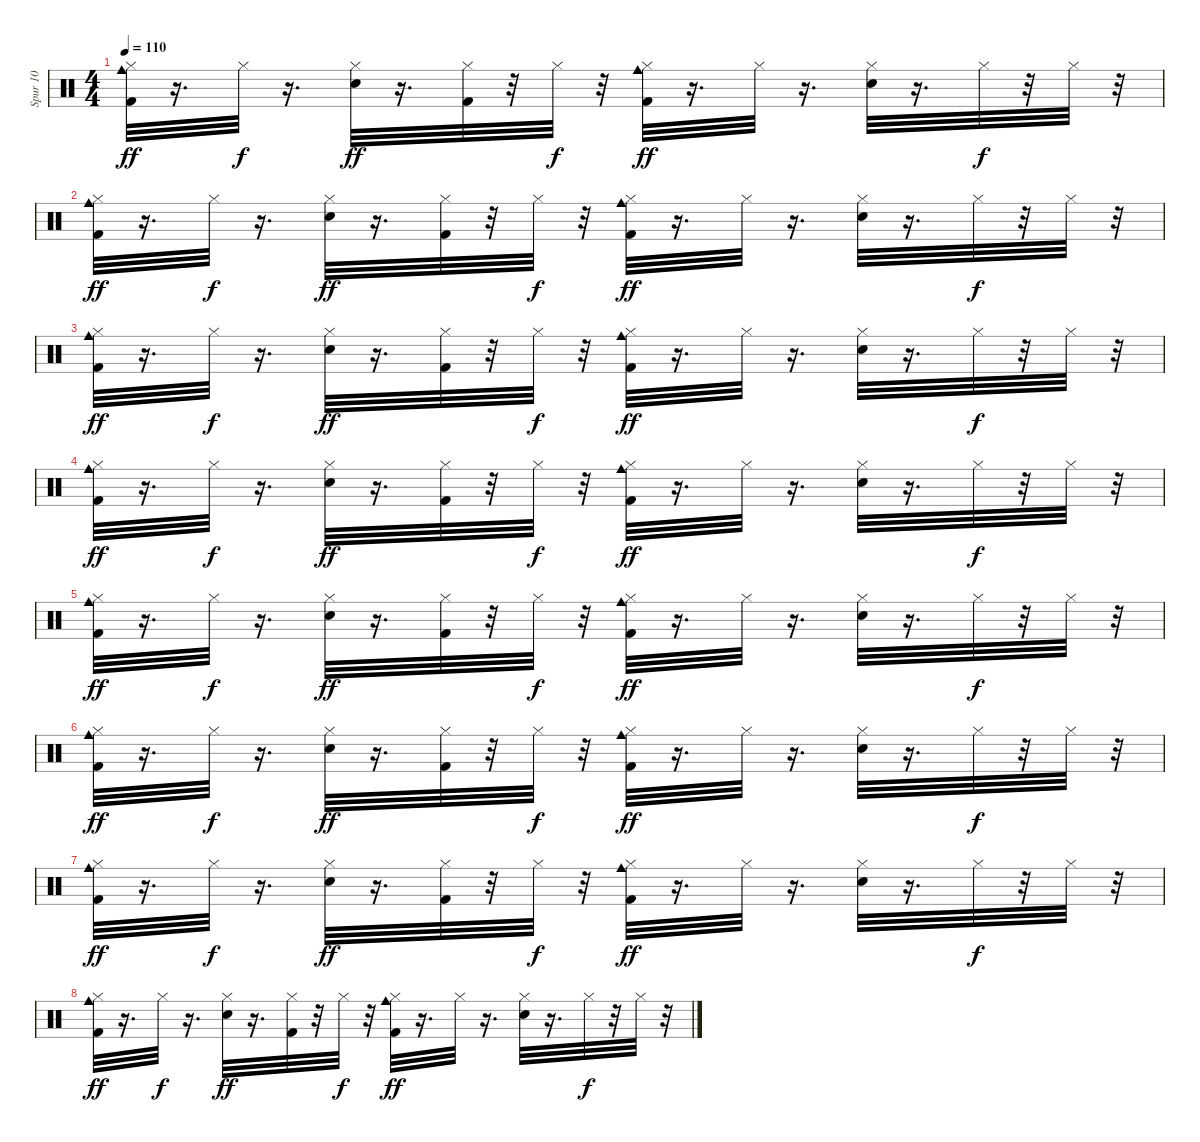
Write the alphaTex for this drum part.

\track ("Spur 10" "Spur 10") {instrument percussion}
\staff {score}
\articulation defaults
\ts (4 4)
\tempo 110
\clef neutral
\ks c
("Kick (hit) 2" "Cowbell medium (hit)" "Hi-Hat (closed)").32{dy ff} r.16{d} "Hi-Hat (closed)".32{dy f} r.16{d} ("Snare (hit) 2" "Hi-Hat (closed)").32{dy ff} r.16{d} ("Kick (hit) 2" "Hi-Hat (closed)").32 r.32 "Hi-Hat (closed)".32{dy f} r.32 ("Kick (hit) 2" "Cowbell medium (hit)" "Hi-Hat (closed)").32{dy ff} r.16{d} "Hi-Hat (closed)".32 r.16{d} ("Snare (hit) 2" "Hi-Hat (closed)").32 r.16{d} "Hi-Hat (closed)".32{dy f} r.32 "Hi-Hat (closed)".32 r.32 |
("Kick (hit) 2" "Cowbell medium (hit)" "Hi-Hat (closed)").32{dy ff} r.16{d} "Hi-Hat (closed)".32{dy f} r.16{d} ("Snare (hit) 2" "Hi-Hat (closed)").32{dy ff} r.16{d} ("Kick (hit) 2" "Hi-Hat (closed)").32 r.32 "Hi-Hat (closed)".32{dy f} r.32 ("Kick (hit) 2" "Cowbell medium (hit)" "Hi-Hat (closed)").32{dy ff} r.16{d} "Hi-Hat (closed)".32 r.16{d} ("Snare (hit) 2" "Hi-Hat (closed)").32 r.16{d} "Hi-Hat (closed)".32{dy f} r.32 "Hi-Hat (closed)".32 r.32 |
("Kick (hit) 2" "Cowbell medium (hit)" "Hi-Hat (closed)").32{dy ff} r.16{d} "Hi-Hat (closed)".32{dy f} r.16{d} ("Snare (hit) 2" "Hi-Hat (closed)").32{dy ff} r.16{d} ("Kick (hit) 2" "Hi-Hat (closed)").32 r.32 "Hi-Hat (closed)".32{dy f} r.32 ("Kick (hit) 2" "Cowbell medium (hit)" "Hi-Hat (closed)").32{dy ff} r.16{d} "Hi-Hat (closed)".32 r.16{d} ("Snare (hit) 2" "Hi-Hat (closed)").32 r.16{d} "Hi-Hat (closed)".32{dy f} r.32 "Hi-Hat (closed)".32 r.32 |
("Kick (hit) 2" "Cowbell medium (hit)" "Hi-Hat (closed)").32{dy ff} r.16{d} "Hi-Hat (closed)".32{dy f} r.16{d} ("Snare (hit) 2" "Hi-Hat (closed)").32{dy ff} r.16{d} ("Kick (hit) 2" "Hi-Hat (closed)").32 r.32 "Hi-Hat (closed)".32{dy f} r.32 ("Kick (hit) 2" "Cowbell medium (hit)" "Hi-Hat (closed)").32{dy ff} r.16{d} "Hi-Hat (closed)".32 r.16{d} ("Snare (hit) 2" "Hi-Hat (closed)").32 r.16{d} "Hi-Hat (closed)".32{dy f} r.32 "Hi-Hat (closed)".32 r.32 |
("Kick (hit) 2" "Cowbell medium (hit)" "Hi-Hat (closed)").32{dy ff} r.16{d} "Hi-Hat (closed)".32{dy f} r.16{d} ("Snare (hit) 2" "Hi-Hat (closed)").32{dy ff} r.16{d} ("Kick (hit) 2" "Hi-Hat (closed)").32 r.32 "Hi-Hat (closed)".32{dy f} r.32 ("Kick (hit) 2" "Cowbell medium (hit)" "Hi-Hat (closed)").32{dy ff} r.16{d} "Hi-Hat (closed)".32 r.16{d} ("Snare (hit) 2" "Hi-Hat (closed)").32 r.16{d} "Hi-Hat (closed)".32{dy f} r.32 "Hi-Hat (closed)".32 r.32 |
("Kick (hit) 2" "Cowbell medium (hit)" "Hi-Hat (closed)").32{dy ff} r.16{d} "Hi-Hat (closed)".32{dy f} r.16{d} ("Snare (hit) 2" "Hi-Hat (closed)").32{dy ff} r.16{d} ("Kick (hit) 2" "Hi-Hat (closed)").32 r.32 "Hi-Hat (closed)".32{dy f} r.32 ("Kick (hit) 2" "Cowbell medium (hit)" "Hi-Hat (closed)").32{dy ff} r.16{d} "Hi-Hat (closed)".32 r.16{d} ("Snare (hit) 2" "Hi-Hat (closed)").32 r.16{d} "Hi-Hat (closed)".32{dy f} r.32 "Hi-Hat (closed)".32 r.32 |
("Kick (hit) 2" "Cowbell medium (hit)" "Hi-Hat (closed)").32{dy ff} r.16{d} "Hi-Hat (closed)".32{dy f} r.16{d} ("Snare (hit) 2" "Hi-Hat (closed)").32{dy ff} r.16{d} ("Kick (hit) 2" "Hi-Hat (closed)").32 r.32 "Hi-Hat (closed)".32{dy f} r.32 ("Kick (hit) 2" "Cowbell medium (hit)" "Hi-Hat (closed)").32{dy ff} r.16{d} "Hi-Hat (closed)".32 r.16{d} ("Snare (hit) 2" "Hi-Hat (closed)").32 r.16{d} "Hi-Hat (closed)".32{dy f} r.32 "Hi-Hat (closed)".32 r.32 |
("Kick (hit) 2" "Cowbell medium (hit)" "Hi-Hat (closed)").32{dy ff} r.16{d} "Hi-Hat (closed)".32{dy f} r.16{d} ("Snare (hit) 2" "Hi-Hat (closed)").32{dy ff} r.16{d} ("Kick (hit) 2" "Hi-Hat (closed)").32 r.32 "Hi-Hat (closed)".32{dy f} r.32 ("Kick (hit) 2" "Cowbell medium (hit)" "Hi-Hat (closed)").32{dy ff} r.16{d} "Hi-Hat (closed)".32 r.16{d} ("Snare (hit) 2" "Hi-Hat (closed)").32 r.16{d} "Hi-Hat (closed)".32{dy f} r.32 "Hi-Hat (closed)".32 r.32
